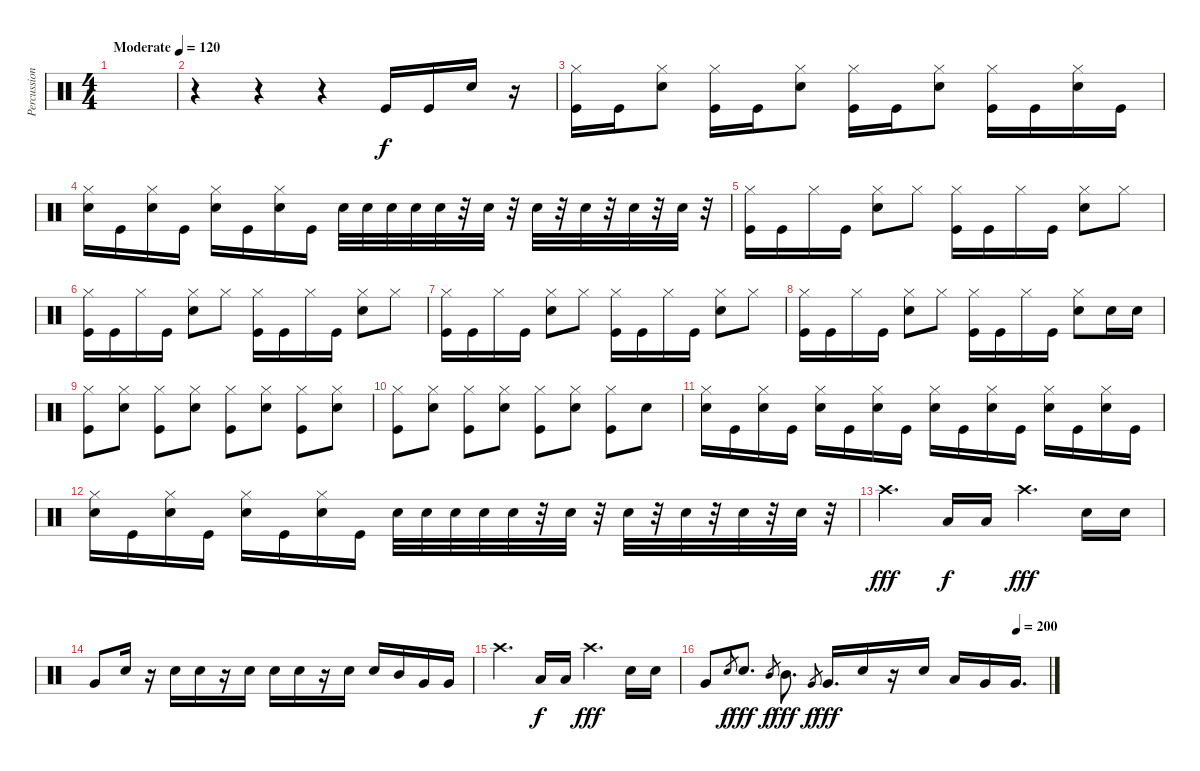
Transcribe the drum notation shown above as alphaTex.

\track ("Percussion" "Percussion") {instrument percussion}
\staff {score}
\articulation defaults
\ts (4 4)
\tempo (120 "Moderate")
\clef neutral
\ks c
|
r.4 r.4 r.4 "Kick (hit)".16 "Kick (hit)".16 "Snare (hit) 2".16 r.16 |
("Hi-Hat (closed)" "Kick (hit)").16 "Kick (hit)".16 ("Hi-Hat (closed)" "Snare (hit) 2").8 ("Hi-Hat (closed)" "Kick (hit)").16 "Kick (hit)".16 ("Hi-Hat (closed)" "Snare (hit) 2").8 ("Hi-Hat (closed)" "Kick (hit)").16 "Kick (hit)".16 ("Hi-Hat (closed)" "Snare (hit) 2").8 ("Hi-Hat (closed)" "Kick (hit)").16 "Kick (hit)".16 ("Hi-Hat (closed)" "Snare (hit) 2").16 "Kick (hit)".16 |
("Hi-Hat (closed)" "Snare (hit) 2").16 "Kick (hit)".16 ("Hi-Hat (closed)" "Snare (hit) 2").16 "Kick (hit)".16 ("Hi-Hat (closed)" "Snare (hit) 2").16 "Kick (hit)".16 ("Hi-Hat (closed)" "Snare (hit) 2").16 "Kick (hit)".16 "Snare (hit) 2".32 "Snare (hit) 2".32 "Snare (hit) 2".32 "Snare (hit) 2".32 "Snare (hit) 2".32 r.32 "Snare (hit) 2".32 r.32 "Snare (hit) 2".32 r.32 "Snare (hit) 2".32 r.32 "Snare (hit) 2".32 r.32 "Snare (hit) 2".32 r.32 |
("Hi-Hat (closed)" "Kick (hit)").16 "Kick (hit)".16 "Hi-Hat (closed)".16 "Kick (hit)".16 ("Hi-Hat (closed)" "Snare (hit) 2").8 "Hi-Hat (closed)".8 ("Hi-Hat (closed)" "Kick (hit)").16 "Kick (hit)".16 "Hi-Hat (closed)".16 "Kick (hit)".16 ("Hi-Hat (closed)" "Snare (hit) 2").8 "Hi-Hat (closed)".8 |
("Hi-Hat (closed)" "Kick (hit)").16 "Kick (hit)".16 "Hi-Hat (closed)".16 "Kick (hit)".16 ("Hi-Hat (closed)" "Snare (hit) 2").8 "Hi-Hat (closed)".8 ("Hi-Hat (closed)" "Kick (hit)").16 "Kick (hit)".16 "Hi-Hat (closed)".16 "Kick (hit)".16 ("Hi-Hat (closed)" "Snare (hit) 2").8 "Hi-Hat (closed)".8 |
("Hi-Hat (closed)" "Kick (hit)").16 "Kick (hit)".16 "Hi-Hat (closed)".16 "Kick (hit)".16 ("Hi-Hat (closed)" "Snare (hit) 2").8 "Hi-Hat (closed)".8 ("Hi-Hat (closed)" "Kick (hit)").16 "Kick (hit)".16 "Hi-Hat (closed)".16 "Kick (hit)".16 ("Hi-Hat (closed)" "Snare (hit) 2").8 "Hi-Hat (closed)".8 |
("Hi-Hat (closed)" "Kick (hit)").16 "Kick (hit)".16 "Hi-Hat (closed)".16 "Kick (hit)".16 ("Hi-Hat (closed)" "Snare (hit) 2").8 "Hi-Hat (closed)".8 ("Hi-Hat (closed)" "Kick (hit)").16 "Kick (hit)".16 "Hi-Hat (closed)".16 "Kick (hit)".16 ("Hi-Hat (closed)" "Snare (hit) 2").8 "Snare (hit) 2".16 "Snare (hit) 2".16 |
("Hi-Hat (closed)" "Kick (hit)").8 ("Hi-Hat (closed)" "Snare (hit) 2").8 ("Hi-Hat (closed)" "Kick (hit)").8 ("Hi-Hat (closed)" "Snare (hit) 2").8 ("Hi-Hat (closed)" "Kick (hit)").8 ("Hi-Hat (closed)" "Snare (hit) 2").8 ("Hi-Hat (closed)" "Kick (hit)").8 ("Hi-Hat (closed)" "Snare (hit) 2").8 |
("Hi-Hat (closed)" "Kick (hit)").8 ("Hi-Hat (closed)" "Snare (hit) 2").8 ("Hi-Hat (closed)" "Kick (hit)").8 ("Hi-Hat (closed)" "Snare (hit) 2").8 ("Hi-Hat (closed)" "Kick (hit)").8 ("Hi-Hat (closed)" "Snare (hit) 2").8 ("Hi-Hat (closed)" "Kick (hit)").8 "Snare (hit) 2".8 |
("Hi-Hat (closed)" "Snare (hit) 2").16 "Kick (hit)".16 ("Hi-Hat (closed)" "Snare (hit) 2").16 "Kick (hit)".16 ("Hi-Hat (closed)" "Snare (hit) 2").16 "Kick (hit)".16 ("Hi-Hat (closed)" "Snare (hit) 2").16 "Kick (hit)".16 ("Hi-Hat (closed)" "Snare (hit) 2").16 "Kick (hit)".16 ("Hi-Hat (closed)" "Snare (hit) 2").16 "Kick (hit)".16 ("Hi-Hat (closed)" "Snare (hit) 2").16 "Kick (hit)".16 ("Hi-Hat (closed)" "Snare (hit) 2").16 "Kick (hit)".16 |
("Hi-Hat (closed)" "Snare (hit) 2").16 "Kick (hit)".16 ("Hi-Hat (closed)" "Snare (hit) 2").16 "Kick (hit)".16 ("Hi-Hat (closed)" "Snare (hit) 2").16 "Kick (hit)".16 ("Hi-Hat (closed)" "Snare (hit) 2").16 "Kick (hit)".16 "Snare (hit) 2".32 "Snare (hit) 2".32 "Snare (hit) 2".32 "Snare (hit) 2".32 "Snare (hit) 2".32 r.32 "Snare (hit) 2".32 r.32 "Snare (hit) 2".32 r.32 "Snare (hit) 2".32 r.32 "Snare (hit) 2".32 r.32 "Snare (hit) 2".32 r.32 |
"Crash high (hit)".4{d dy fff} "Low Tom (hit)".16{dy f} "Low Tom (hit)".16 "Crash high (hit)".4{d dy fff} "Snare (hit) 2".16 "Snare (hit) 2".16 |
"Very Low Tom (hit)".8 "Snare (hit) 2".16 r.16 "Snare (hit) 2".16 "Snare (hit) 2".16 r.16 "Snare (hit) 2".16 "Snare (hit) 2".16 "Snare (hit) 2".16 r.16 "Snare (hit) 2".16 "Snare (hit) 2".16 "Mid Tom (hit)".16 "Very Low Tom (hit)".16 "Very Low Tom (hit)".16 |
"Crash high (hit)".4{d} "Low Tom (hit)".16{dy f} "Low Tom (hit)".16 "Crash high (hit)".4{d dy fff} "Snare (hit) 2".16 "Snare (hit) 2".16 |
\tempo (200 0.90625)
"Very Low Tom (hit)".8 "Snare (hit) 2".8{gr dy f} "Snare (hit) 2".8{d dy fff} "Mid Tom (hit)".8{gr dy f} "Mid Tom (hit)".8{d dy fff} "Very Low Tom (hit)".8{gr dy f} "Very Low Tom (hit)".16{d dy fff} "Snare (hit) 2".16 r.16 "Snare (hit) 2".16 "Low Tom (hit)".16 "Very Low Tom (hit)".16 "Very Low Tom (hit)".16{d}
